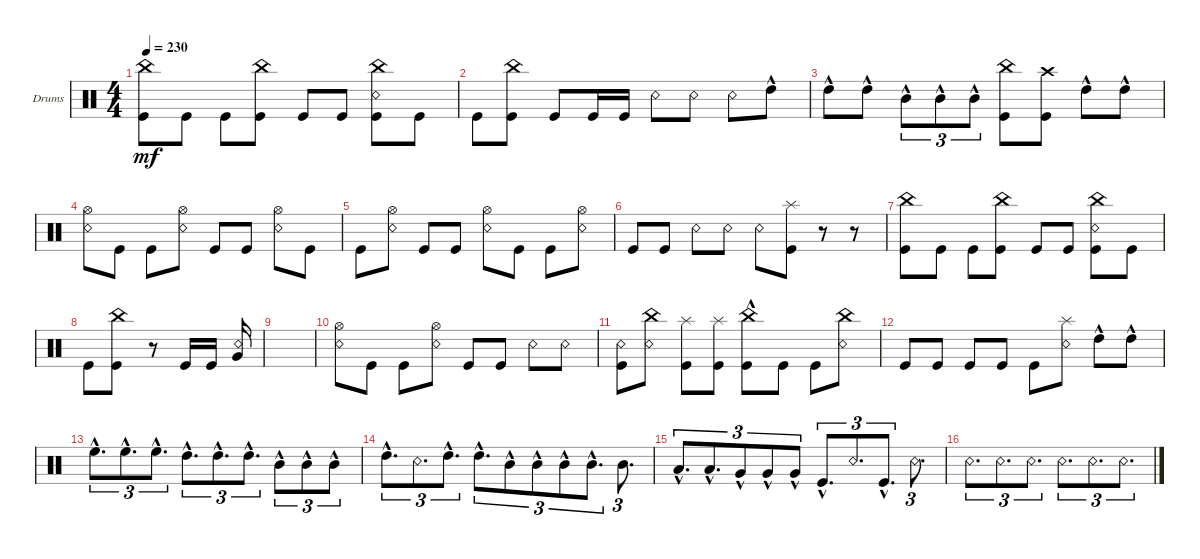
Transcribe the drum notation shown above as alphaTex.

\bracketExtendMode groupsimilarinstruments
\firstSystemTrackNameOrientation horizontal
\otherSystemsTrackNameOrientation horizontal
\track ("Drumkit" "Drums") {instrument percussion}
\staff {score}
\articulation defaults
\ts (4 4)
\tempo 230
\clef neutral
\ks c
("China (hit)" "Kick (hit)").8{dy mf} "Kick (hit)".8 "Kick (hit)".8 ("Kick (hit)" "China (hit)").8 "Kick (hit)".8 "Kick (hit)".8 ("Kick (hit)" "Snare (rim shot)" "China (hit)").8 "Kick (hit)".8 |
"Kick (hit)".8 ("Kick (hit)" "China (hit)").8 "Kick (hit)".8 "Kick (hit)".16 "Kick (hit)".16 "Snare (rim shot)".8 "Snare (rim shot)".8 "Snare (rim shot)".8 "High Tom (hit)"{hac}.8 |
"High Tom (hit)"{hac}.8 "High Tom (hit)"{hac}.8 "Mid Tom (hit)"{hac}.8{tu (3 2)} "Mid Tom (hit)"{hac}.8{tu (3 2)} "Mid Tom (hit)"{hac}.8{tu (3 2)} ("Kick (hit)" "China (hit)").8 ("Crash high (hit)" "Kick (hit)").8 "High Tom (hit)"{hac}.8 "High Tom (hit)"{hac}.8 |
("Snare (rim shot)" "Hi-Hat (open)").8 "Kick (hit)".8 "Kick (hit)".8 ("Snare (rim shot)" "Hi-Hat (open)").8 "Kick (hit)".8 "Kick (hit)".8 ("Snare (rim shot)" "Hi-Hat (open)").8 "Kick (hit)".8 |
"Kick (hit)".8 ("Snare (rim shot)" "Hi-Hat (open)").8 "Kick (hit)".8 "Kick (hit)".8 ("Snare (rim shot)" "Hi-Hat (open)").8 "Kick (hit)".8 "Kick (hit)".8 ("Snare (rim shot)" "Hi-Hat (open)").8 |
"Kick (hit)".8 "Kick (hit)".8 "Snare (rim shot)".8 "Snare (rim shot)".8 "Snare (rim shot)".8 ("Kick (hit)" "Splash (hit)").8 r.8 r.8 |
("China (hit)" "Kick (hit)").8 "Kick (hit)".8 "Kick (hit)".8 ("Kick (hit)" "China (hit)").8 "Kick (hit)".8 "Kick (hit)".8 ("Kick (hit)" "Snare (rim shot)" "China (hit)").8 "Kick (hit)".8 |
"Kick (hit)".8 ("Kick (hit)" "China (hit)").8 r.8 "Kick (hit)".16 "Kick (hit)".16 ("Snare (rim shot)" "Very Low Tom (hit)").16 |
|
("Snare (rim shot)" "Hi-Hat (open)").8 "Kick (hit)".8 "Kick (hit)".8 ("Snare (rim shot)" "Hi-Hat (open)").8 "Kick (hit)".8 "Kick (hit)".8 "Snare (rim shot)".8 "Snare (rim shot)".8 |
("Kick (hit)" "Snare (rim shot)").8 ("Snare (rim shot)" "China (hit)").8 ("Kick (hit)" "Splash (hit)").8 ("Kick (hit)" "Splash (hit)").8 ("China (hit)"{hac} "Kick (hit)").8 "Kick (hit)".8 "Kick (hit)".8 ("Snare (rim shot)" "China (hit)").8 |
"Kick (hit)".8 "Kick (hit)".8 "Kick (hit)".8 "Kick (hit)".8 "Kick (hit)".8 ("Splash (hit)" "Snare (rim shot)").8 "High Tom (hit)"{hac}.8 "High Tom (hit)"{hac}.8 |
"High Floor Tom (hit)"{hac}.8{d tu (3 2)} "High Floor Tom (hit)"{hac}.8{d tu (3 2)} "High Floor Tom (hit)"{hac}.8{d tu (3 2)} "High Tom (hit)"{hac}.8{d tu (3 2)} "High Tom (hit)"{hac}.8{d tu (3 2)} "High Tom (hit)"{hac}.8{d tu (3 2)} "Mid Tom (hit)"{hac}.8{tu (3 2)} "Mid Tom (hit)"{hac}.8{tu (3 2)} "Mid Tom (hit)"{hac}.8{tu (3 2)} |
"High Tom (hit)"{hac}.8{d tu (3 2)} "Snare (rim shot)".8{d tu (3 2)} "High Tom (hit)"{hac}.8{d tu (3 2)} "High Tom (hit)"{hac}.8{d tu (3 2)} "Mid Tom (hit)"{hac}.8{tu (3 2)} "Mid Tom (hit)"{hac}.8{tu (3 2)} "Mid Tom (hit)"{hac}.8{tu (3 2)} "Mid Tom (hit)"{hac}.8{d tu (3 2)} "Mid Tom (hit)".8{d tu (3 2)} |
"Low Tom (hit)"{hac}.8{d tu (3 2)} "Low Tom (hit)"{hac}.8{d tu (3 2)} "Very Low Tom (hit)"{hac}.8{tu (3 2)} "Very Low Tom (hit)"{hac}.8{tu (3 2)} "Very Low Tom (hit)"{hac}.8{tu (3 2)} "Kick (hit)"{hac}.8{d tu (3 2)} "Snare (rim shot)".8{d tu (3 2)} "Kick (hit)"{hac}.8{d tu (3 2)} "Snare (rim shot)".8{d tu (3 2)} |
"Snare (rim shot)".8{d tu (3 2)} "Snare (rim shot)".8{d tu (3 2)} "Snare (rim shot)".8{d tu (3 2)} "Snare (rim shot)".8{d tu (3 2)} "Snare (rim shot)".8{d tu (3 2)} "Snare (rim shot)".8{d tu (3 2)}
